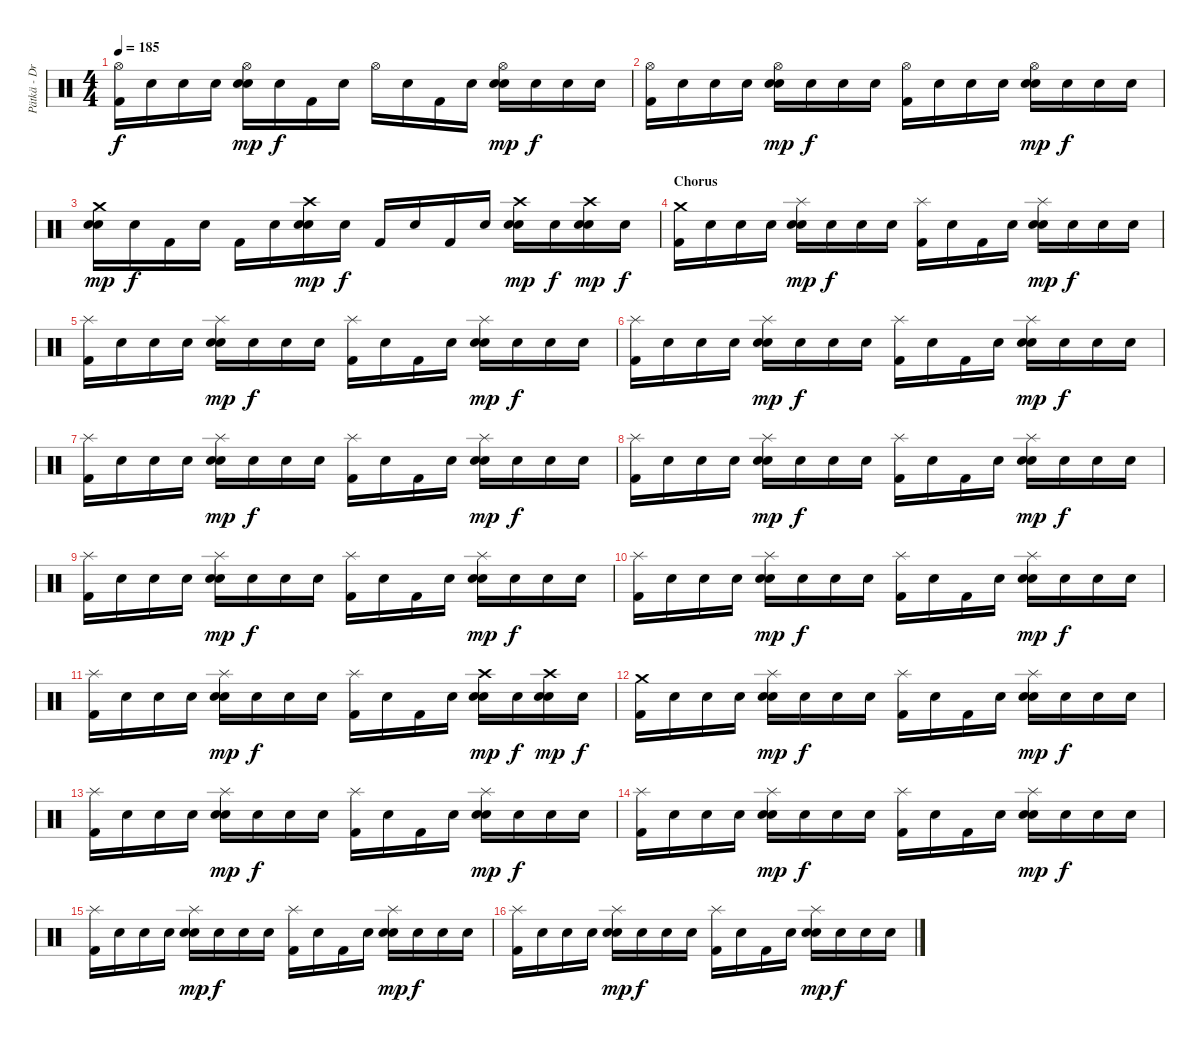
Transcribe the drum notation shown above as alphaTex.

\track ("Pätkä - Drums" "Pätkä - Dr") {instrument percussion}
\staff {score}
\articulation defaults
\ts (4 4)
\tempo 185
\clef neutral
\ks c
("Hi-Hat (open)" "Kick (hit) 2").16{dy f} "Snare (hit)".16 "Snare (hit)".16 "Snare (hit)".16 ("Hi-Hat (open)" "Electric Snare (hit)" "Snare (hit) 2").16{dy mp} "Snare (hit)".16{dy f} "Kick (hit) 2".16 "Snare (hit)".16 "Hi-Hat (open)".16 "Snare (hit)".16 "Kick (hit) 2".16 "Snare (hit)".16 ("Hi-Hat (open)" "Electric Snare (hit)" "Snare (hit) 2").16{dy mp} "Snare (hit)".16{dy f} "Snare (hit)".16 "Snare (hit)".16 |
("Hi-Hat (open)" "Kick (hit) 2").16 "Snare (hit)".16 "Snare (hit)".16 "Snare (hit)".16 ("Hi-Hat (open)" "Electric Snare (hit)" "Snare (hit) 2").16{dy mp} "Snare (hit)".16{dy f} "Snare (hit)".16 "Snare (hit)".16 ("Hi-Hat (open)" "Kick (hit) 2").16 "Snare (hit)".16 "Snare (hit)".16 "Snare (hit)".16 ("Hi-Hat (open)" "Electric Snare (hit)" "Snare (hit) 2").16{dy mp} "Snare (hit)".16{dy f} "Snare (hit)".16 "Snare (hit)".16 |
("Crash medium (hit)" "Electric Snare (hit)" "Snare (hit) 2").16{dy mp} "Snare (hit)".16{dy f} "Kick (hit) 2".16 "Snare (hit)".16 "Kick (hit) 2".16 "Snare (hit)".16 ("Crash high (hit)" "Electric Snare (hit)" "Snare (hit) 2").16{dy mp} "Snare (hit)".16{dy f} "Kick (hit) 2".16 "Snare (hit)".16 "Kick (hit) 2".16 "Snare (hit)".16 ("Crash high (hit)" "Electric Snare (hit)" "Snare (hit) 2").16{dy mp} "Snare (hit)".16{dy f} ("Crash high (hit)" "Electric Snare (hit)" "Snare (hit) 2").16{dy mp} "Snare (hit)".16{dy f} |
\section ("" "Chorus")
("Crash medium (hit)" "Kick (hit) 2").16{volume 16 balance 8} "Snare (hit)".16 "Snare (hit)".16 "Snare (hit)".16 ("Splash (hit)" "Electric Snare (hit)" "Snare (hit) 2").16{dy mp} "Snare (hit)".16{dy f} "Snare (hit)".16 "Snare (hit)".16 ("Splash (hit)" "Kick (hit) 2").16 "Snare (hit)".16 "Kick (hit) 2".16 "Snare (hit)".16 ("Splash (hit)" "Electric Snare (hit)" "Snare (hit) 2").16{dy mp} "Snare (hit)".16{dy f} "Snare (hit)".16 "Snare (hit)".16 |
("Splash (hit)" "Kick (hit) 2").16 "Snare (hit)".16 "Snare (hit)".16 "Snare (hit)".16 ("Splash (hit)" "Electric Snare (hit)" "Snare (hit) 2").16{dy mp} "Snare (hit)".16{dy f} "Snare (hit)".16 "Snare (hit)".16 ("Splash (hit)" "Kick (hit) 2").16 "Snare (hit)".16 "Kick (hit) 2".16 "Snare (hit)".16 ("Splash (hit)" "Electric Snare (hit)" "Snare (hit) 2").16{dy mp} "Snare (hit)".16{dy f} "Snare (hit)".16 "Snare (hit)".16 |
("Splash (hit)" "Kick (hit) 2").16 "Snare (hit)".16 "Snare (hit)".16 "Snare (hit)".16 ("Splash (hit)" "Electric Snare (hit)" "Snare (hit) 2").16{dy mp} "Snare (hit)".16{dy f} "Snare (hit)".16 "Snare (hit)".16 ("Splash (hit)" "Kick (hit) 2").16 "Snare (hit)".16 "Kick (hit) 2".16 "Snare (hit)".16 ("Splash (hit)" "Electric Snare (hit)" "Snare (hit) 2").16{dy mp} "Snare (hit)".16{dy f} "Snare (hit)".16 "Snare (hit)".16 |
("Splash (hit)" "Kick (hit) 2").16 "Snare (hit)".16 "Snare (hit)".16 "Snare (hit)".16 ("Splash (hit)" "Electric Snare (hit)" "Snare (hit) 2").16{dy mp} "Snare (hit)".16{dy f} "Snare (hit)".16 "Snare (hit)".16 ("Splash (hit)" "Kick (hit) 2").16 "Snare (hit)".16 "Kick (hit) 2".16 "Snare (hit)".16 ("Splash (hit)" "Electric Snare (hit)" "Snare (hit) 2").16{dy mp} "Snare (hit)".16{dy f} "Snare (hit)".16 "Snare (hit)".16 |
("Splash (hit)" "Kick (hit) 2").16 "Snare (hit)".16 "Snare (hit)".16 "Snare (hit)".16 ("Splash (hit)" "Electric Snare (hit)" "Snare (hit) 2").16{dy mp} "Snare (hit)".16{dy f} "Snare (hit)".16 "Snare (hit)".16 ("Splash (hit)" "Kick (hit) 2").16 "Snare (hit)".16 "Kick (hit) 2".16 "Snare (hit)".16 ("Splash (hit)" "Electric Snare (hit)" "Snare (hit) 2").16{dy mp} "Snare (hit)".16{dy f} "Snare (hit)".16 "Snare (hit)".16 |
("Splash (hit)" "Kick (hit) 2").16 "Snare (hit)".16 "Snare (hit)".16 "Snare (hit)".16 ("Splash (hit)" "Electric Snare (hit)" "Snare (hit) 2").16{dy mp} "Snare (hit)".16{dy f} "Snare (hit)".16 "Snare (hit)".16 ("Splash (hit)" "Kick (hit) 2").16 "Snare (hit)".16 "Kick (hit) 2".16 "Snare (hit)".16 ("Splash (hit)" "Electric Snare (hit)" "Snare (hit) 2").16{dy mp} "Snare (hit)".16{dy f} "Snare (hit)".16 "Snare (hit)".16 |
("Splash (hit)" "Kick (hit) 2").16 "Snare (hit)".16 "Snare (hit)".16 "Snare (hit)".16 ("Splash (hit)" "Electric Snare (hit)" "Snare (hit) 2").16{dy mp} "Snare (hit)".16{dy f} "Snare (hit)".16 "Snare (hit)".16 ("Splash (hit)" "Kick (hit) 2").16 "Snare (hit)".16 "Kick (hit) 2".16 "Snare (hit)".16 ("Splash (hit)" "Electric Snare (hit)" "Snare (hit) 2").16{dy mp} "Snare (hit)".16{dy f} "Snare (hit)".16 "Snare (hit)".16 |
("Splash (hit)" "Kick (hit) 2").16 "Snare (hit)".16 "Snare (hit)".16 "Snare (hit)".16 ("Splash (hit)" "Electric Snare (hit)" "Snare (hit) 2").16{dy mp} "Snare (hit)".16{dy f} "Snare (hit)".16 "Snare (hit)".16 ("Splash (hit)" "Kick (hit) 2").16 "Snare (hit)".16 "Kick (hit) 2".16 "Snare (hit)".16 ("Crash high (hit)" "Electric Snare (hit)" "Snare (hit) 2").16{dy mp} "Snare (hit)".16{dy f} ("Crash high (hit)" "Electric Snare (hit)" "Snare (hit) 2").16{dy mp} "Snare (hit)".16{dy f} |
("Crash medium (hit)" "Kick (hit) 2").16 "Snare (hit)".16 "Snare (hit)".16 "Snare (hit)".16 ("Splash (hit)" "Electric Snare (hit)" "Snare (hit) 2").16{dy mp} "Snare (hit)".16{dy f} "Snare (hit)".16 "Snare (hit)".16 ("Splash (hit)" "Kick (hit) 2").16 "Snare (hit)".16 "Kick (hit) 2".16 "Snare (hit)".16 ("Splash (hit)" "Electric Snare (hit)" "Snare (hit) 2").16{dy mp} "Snare (hit)".16{dy f} "Snare (hit)".16 "Snare (hit)".16 |
("Splash (hit)" "Kick (hit) 2").16 "Snare (hit)".16 "Snare (hit)".16 "Snare (hit)".16 ("Splash (hit)" "Electric Snare (hit)" "Snare (hit) 2").16{dy mp} "Snare (hit)".16{dy f} "Snare (hit)".16 "Snare (hit)".16 ("Splash (hit)" "Kick (hit) 2").16 "Snare (hit)".16 "Kick (hit) 2".16 "Snare (hit)".16 ("Splash (hit)" "Electric Snare (hit)" "Snare (hit) 2").16{dy mp} "Snare (hit)".16{dy f} "Snare (hit)".16 "Snare (hit)".16 |
("Splash (hit)" "Kick (hit) 2").16 "Snare (hit)".16 "Snare (hit)".16 "Snare (hit)".16 ("Splash (hit)" "Electric Snare (hit)" "Snare (hit) 2").16{dy mp} "Snare (hit)".16{dy f} "Snare (hit)".16 "Snare (hit)".16 ("Splash (hit)" "Kick (hit) 2").16 "Snare (hit)".16 "Kick (hit) 2".16 "Snare (hit)".16 ("Splash (hit)" "Electric Snare (hit)" "Snare (hit) 2").16{dy mp} "Snare (hit)".16{dy f} "Snare (hit)".16 "Snare (hit)".16 |
("Splash (hit)" "Kick (hit) 2").16 "Snare (hit)".16 "Snare (hit)".16 "Snare (hit)".16 ("Splash (hit)" "Electric Snare (hit)" "Snare (hit) 2").16{dy mp} "Snare (hit)".16{dy f} "Snare (hit)".16 "Snare (hit)".16 ("Splash (hit)" "Kick (hit) 2").16 "Snare (hit)".16 "Kick (hit) 2".16 "Snare (hit)".16 ("Splash (hit)" "Electric Snare (hit)" "Snare (hit) 2").16{dy mp} "Snare (hit)".16{dy f} "Snare (hit)".16 "Snare (hit)".16 |
("Splash (hit)" "Kick (hit) 2").16 "Snare (hit)".16 "Snare (hit)".16 "Snare (hit)".16 ("Splash (hit)" "Electric Snare (hit)" "Snare (hit) 2").16{dy mp} "Snare (hit)".16{dy f} "Snare (hit)".16 "Snare (hit)".16 ("Splash (hit)" "Kick (hit) 2").16 "Snare (hit)".16 "Kick (hit) 2".16 "Snare (hit)".16 ("Splash (hit)" "Electric Snare (hit)" "Snare (hit) 2").16{dy mp} "Snare (hit)".16{dy f} "Snare (hit)".16 "Snare (hit)".16
